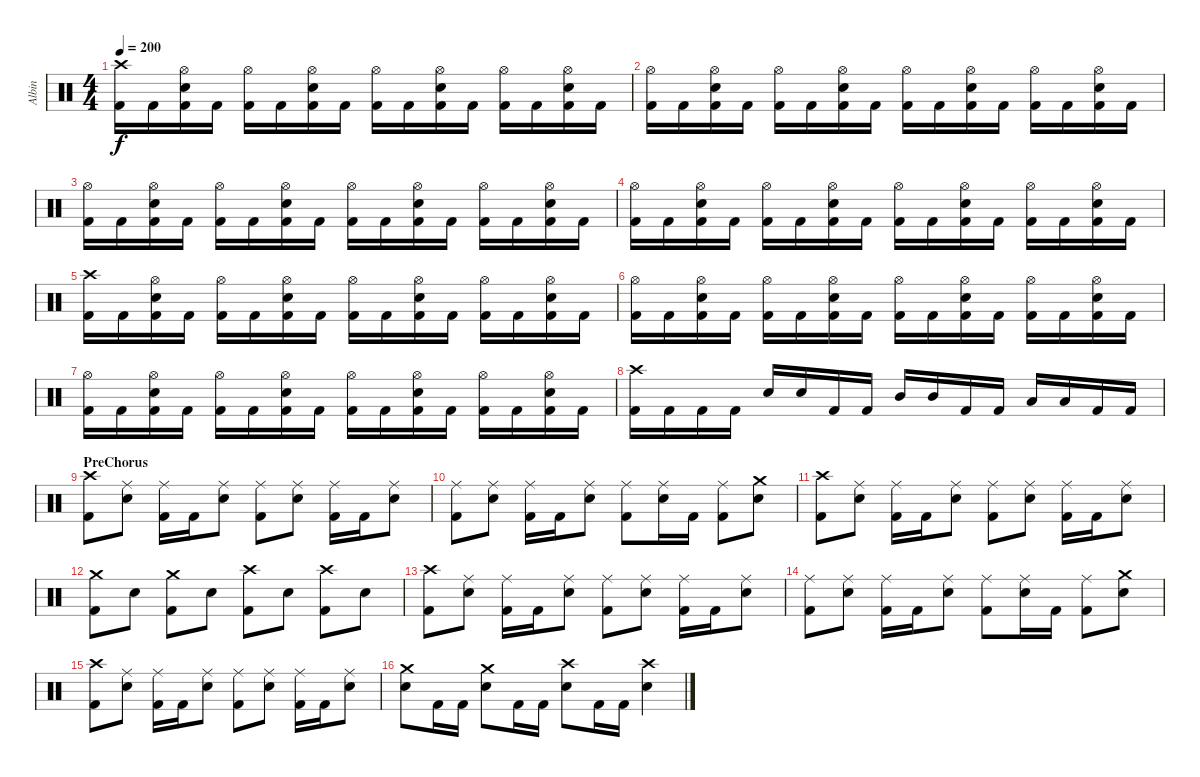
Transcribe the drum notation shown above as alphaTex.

\track ("Albin" "Albin") {instrument percussion}
\staff {score}
\articulation defaults
\ts (4 4)
\section ("" "")
\tempo 200
\clef neutral
\ks c
("Crash high (hit)" "Kick (hit) 2").16{dy f} "Kick (hit) 2".16 ("Hi-Hat (open)" "Snare (hit) 2" "Kick (hit) 2").16 "Kick (hit) 2".16 ("Hi-Hat (open)" "Kick (hit) 2").16 "Kick (hit) 2".16 ("Hi-Hat (open)" "Snare (hit) 2" "Kick (hit) 2").16 "Kick (hit) 2".16 ("Hi-Hat (open)" "Kick (hit) 2").16 "Kick (hit) 2".16 ("Hi-Hat (open)" "Snare (hit) 2" "Kick (hit) 2").16 "Kick (hit) 2".16 ("Hi-Hat (open)" "Kick (hit) 2").16 "Kick (hit) 2".16 ("Hi-Hat (open)" "Snare (hit) 2" "Kick (hit) 2").16 "Kick (hit) 2".16 |
("Hi-Hat (open)" "Kick (hit) 2").16 "Kick (hit) 2".16 ("Hi-Hat (open)" "Snare (hit) 2" "Kick (hit) 2").16 "Kick (hit) 2".16 ("Hi-Hat (open)" "Kick (hit) 2").16 "Kick (hit) 2".16 ("Hi-Hat (open)" "Snare (hit) 2" "Kick (hit) 2").16 "Kick (hit) 2".16 ("Hi-Hat (open)" "Kick (hit) 2").16 "Kick (hit) 2".16 ("Hi-Hat (open)" "Snare (hit) 2" "Kick (hit) 2").16 "Kick (hit) 2".16 ("Hi-Hat (open)" "Kick (hit) 2").16 "Kick (hit) 2".16 ("Hi-Hat (open)" "Snare (hit) 2" "Kick (hit) 2").16 "Kick (hit) 2".16 |
("Hi-Hat (open)" "Kick (hit) 2").16 "Kick (hit) 2".16 ("Hi-Hat (open)" "Snare (hit) 2" "Kick (hit) 2").16 "Kick (hit) 2".16 ("Hi-Hat (open)" "Kick (hit) 2").16 "Kick (hit) 2".16 ("Hi-Hat (open)" "Snare (hit) 2" "Kick (hit) 2").16 "Kick (hit) 2".16 ("Hi-Hat (open)" "Kick (hit) 2").16 "Kick (hit) 2".16 ("Hi-Hat (open)" "Snare (hit) 2" "Kick (hit) 2").16 "Kick (hit) 2".16 ("Hi-Hat (open)" "Kick (hit) 2").16 "Kick (hit) 2".16 ("Hi-Hat (open)" "Snare (hit) 2" "Kick (hit) 2").16 "Kick (hit) 2".16 |
("Hi-Hat (open)" "Kick (hit) 2").16 "Kick (hit) 2".16 ("Hi-Hat (open)" "Snare (hit) 2" "Kick (hit) 2").16 "Kick (hit) 2".16 ("Hi-Hat (open)" "Kick (hit) 2").16 "Kick (hit) 2".16 ("Hi-Hat (open)" "Snare (hit) 2" "Kick (hit) 2").16 "Kick (hit) 2".16 ("Hi-Hat (open)" "Kick (hit) 2").16 "Kick (hit) 2".16 ("Hi-Hat (open)" "Snare (hit) 2" "Kick (hit) 2").16 "Kick (hit) 2".16 ("Hi-Hat (open)" "Kick (hit) 2").16 "Kick (hit) 2".16 ("Hi-Hat (open)" "Snare (hit) 2" "Kick (hit) 2").16 "Kick (hit) 2".16 |
("Crash high (hit)" "Kick (hit) 2").16 "Kick (hit) 2".16 ("Hi-Hat (open)" "Snare (hit) 2" "Kick (hit) 2").16 "Kick (hit) 2".16 ("Hi-Hat (open)" "Kick (hit) 2").16 "Kick (hit) 2".16 ("Hi-Hat (open)" "Snare (hit) 2" "Kick (hit) 2").16 "Kick (hit) 2".16 ("Hi-Hat (open)" "Kick (hit) 2").16 "Kick (hit) 2".16 ("Hi-Hat (open)" "Snare (hit) 2" "Kick (hit) 2").16 "Kick (hit) 2".16 ("Hi-Hat (open)" "Kick (hit) 2").16 "Kick (hit) 2".16 ("Hi-Hat (open)" "Snare (hit) 2" "Kick (hit) 2").16 "Kick (hit) 2".16 |
("Hi-Hat (open)" "Kick (hit) 2").16 "Kick (hit) 2".16 ("Hi-Hat (open)" "Snare (hit) 2" "Kick (hit) 2").16 "Kick (hit) 2".16 ("Hi-Hat (open)" "Kick (hit) 2").16 "Kick (hit) 2".16 ("Hi-Hat (open)" "Snare (hit) 2" "Kick (hit) 2").16 "Kick (hit) 2".16 ("Hi-Hat (open)" "Kick (hit) 2").16 "Kick (hit) 2".16 ("Hi-Hat (open)" "Snare (hit) 2" "Kick (hit) 2").16 "Kick (hit) 2".16 ("Hi-Hat (open)" "Kick (hit) 2").16 "Kick (hit) 2".16 ("Hi-Hat (open)" "Snare (hit) 2" "Kick (hit) 2").16 "Kick (hit) 2".16 |
("Hi-Hat (open)" "Kick (hit) 2").16 "Kick (hit) 2".16 ("Hi-Hat (open)" "Snare (hit) 2" "Kick (hit) 2").16 "Kick (hit) 2".16 ("Hi-Hat (open)" "Kick (hit) 2").16 "Kick (hit) 2".16 ("Hi-Hat (open)" "Snare (hit) 2" "Kick (hit) 2").16 "Kick (hit) 2".16 ("Hi-Hat (open)" "Kick (hit) 2").16 "Kick (hit) 2".16 ("Hi-Hat (open)" "Snare (hit) 2" "Kick (hit) 2").16 "Kick (hit) 2".16 ("Hi-Hat (open)" "Kick (hit) 2").16 "Kick (hit) 2".16 ("Hi-Hat (open)" "Snare (hit) 2" "Kick (hit) 2").16 "Kick (hit) 2".16 |
("Crash high (hit)" "Kick (hit) 2").16 "Kick (hit) 2".16 "Kick (hit) 2".16 "Kick (hit) 2".16 "Snare (hit) 2".16 "Snare (hit) 2".16 "Kick (hit) 2".16 "Kick (hit) 2".16 "Mid Tom (hit)".16 "Mid Tom (hit)".16 "Kick (hit) 2".16 "Kick (hit) 2".16 "Low Tom (hit)".16 "Low Tom (hit)".16 "Kick (hit) 2".16 "Kick (hit) 2".16 |
\section ("" "PreChorus")
("Crash high (hit)" "Kick (hit) 2").8 ("Ride (middle)" "Snare (hit) 2").8 ("Ride (middle)" "Kick (hit) 2").16 "Kick (hit) 2".16 ("Ride (middle)" "Snare (hit) 2").8 ("Ride (middle)" "Kick (hit) 2").8 ("Ride (middle)" "Snare (hit) 2").8 ("Ride (middle)" "Kick (hit) 2").16 "Kick (hit) 2".16 ("Ride (middle)" "Snare (hit) 2").8 |
("Ride (middle)" "Kick (hit) 2").8 ("Ride (middle)" "Snare (hit) 2").8 ("Ride (middle)" "Kick (hit) 2").16 "Kick (hit) 2".16 ("Ride (middle)" "Snare (hit) 2").8 ("Ride (middle)" "Kick (hit) 2").8 ("Ride (middle)" "Snare (hit) 2").16 "Kick (hit) 2".16 ("Ride (middle)" "Kick (hit) 2").8 ("Crash medium (hit)" "Snare (hit) 2").8 |
("Crash high (hit)" "Kick (hit) 2").8 ("Ride (middle)" "Snare (hit) 2").8 ("Ride (middle)" "Kick (hit) 2").16 "Kick (hit) 2".16 ("Ride (middle)" "Snare (hit) 2").8 ("Ride (middle)" "Kick (hit) 2").8 ("Ride (middle)" "Snare (hit) 2").8 ("Ride (middle)" "Kick (hit) 2").16 "Kick (hit) 2".16 ("Ride (middle)" "Snare (hit) 2").8 |
("Crash medium (hit)" "Kick (hit) 2").8 "Snare (hit) 2".8 ("Crash medium (hit)" "Kick (hit) 2").8 "Snare (hit) 2".8 ("Crash high (hit)" "Kick (hit) 2").8 "Snare (hit) 2".8 ("Crash high (hit)" "Kick (hit) 2").8 "Snare (hit) 2".8 |
("Crash high (hit)" "Kick (hit) 2").8 ("Ride (middle)" "Snare (hit) 2").8 ("Ride (middle)" "Kick (hit) 2").16 "Kick (hit) 2".16 ("Ride (middle)" "Snare (hit) 2").8 ("Ride (middle)" "Kick (hit) 2").8 ("Ride (middle)" "Snare (hit) 2").8 ("Ride (middle)" "Kick (hit) 2").16 "Kick (hit) 2".16 ("Ride (middle)" "Snare (hit) 2").8 |
("Ride (middle)" "Kick (hit) 2").8 ("Ride (middle)" "Snare (hit) 2").8 ("Ride (middle)" "Kick (hit) 2").16 "Kick (hit) 2".16 ("Ride (middle)" "Snare (hit) 2").8 ("Ride (middle)" "Kick (hit) 2").8 ("Ride (middle)" "Snare (hit) 2").16 "Kick (hit) 2".16 ("Ride (middle)" "Kick (hit) 2").8 ("Crash medium (hit)" "Snare (hit) 2").8 |
("Crash high (hit)" "Kick (hit) 2").8 ("Ride (middle)" "Snare (hit) 2").8 ("Ride (middle)" "Kick (hit) 2").16 "Kick (hit) 2".16 ("Ride (middle)" "Snare (hit) 2").8 ("Ride (middle)" "Kick (hit) 2").8 ("Ride (middle)" "Snare (hit) 2").8 ("Ride (middle)" "Kick (hit) 2").16 "Kick (hit) 2".16 ("Ride (middle)" "Snare (hit) 2").8 |
("Crash medium (hit)" "Snare (hit) 2").8 "Kick (hit) 2".16 "Kick (hit) 2".16 ("Crash medium (hit)" "Snare (hit) 2").8 "Kick (hit) 2".16 "Kick (hit) 2".16 ("Crash high (hit)" "Snare (hit) 2").8 "Kick (hit) 2".16 "Kick (hit) 2".16 ("Crash high (hit)" "Snare (hit) 2").4
